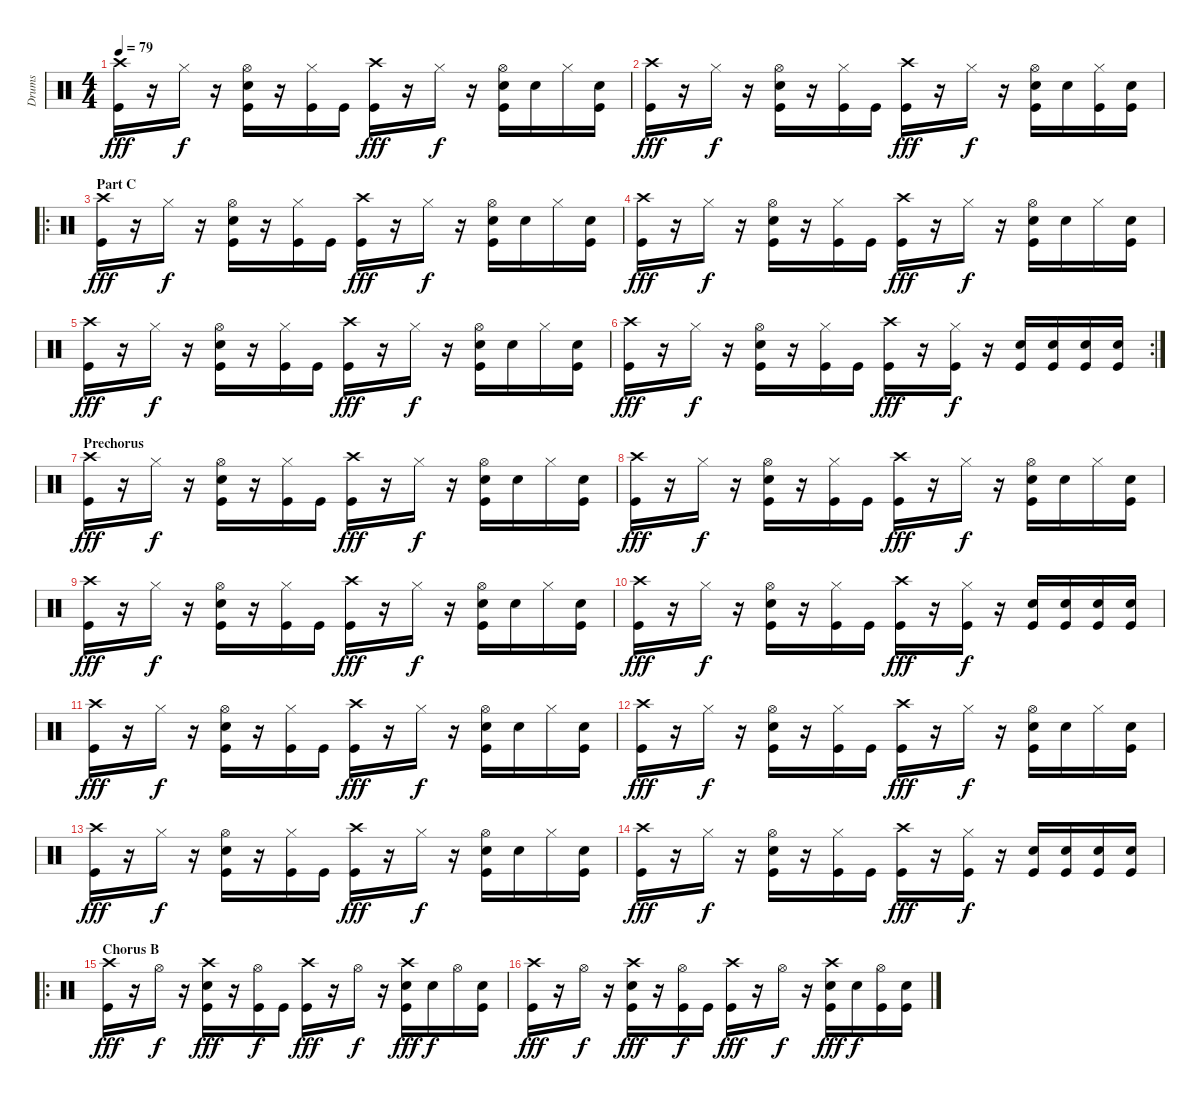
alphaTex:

\track ("Drums" "Drums") {instrument percussion}
\staff {score}
\articulation defaults
\ts (4 4)
\tempo 79
\clef neutral
\ks c
("Crash high (hit)" "Kick (hit)").16{dy fff volume 11} r.16 "Hi-Hat (closed)".16{dy f} r.16 ("Hi-Hat (open)" "Electric Snare (hit)" "Kick (hit)").16 r.16 ("Hi-Hat (closed)" "Kick (hit)").16 "Kick (hit)".16 ("Crash high (hit)" "Kick (hit)").16{dy fff} r.16 "Hi-Hat (closed)".16{dy f} r.16 ("Hi-Hat (open)" "Electric Snare (hit)" "Kick (hit)").16 "Electric Snare (hit)".16 "Hi-Hat (closed)".16 ("Electric Snare (hit)" "Kick (hit)").16 |
("Crash high (hit)" "Kick (hit)").16{dy fff} r.16 "Hi-Hat (closed)".16{dy f} r.16 ("Hi-Hat (open)" "Electric Snare (hit)" "Kick (hit)").16 r.16 ("Hi-Hat (closed)" "Kick (hit)").16 "Kick (hit)".16 ("Crash high (hit)" "Kick (hit)").16{dy fff} r.16 "Hi-Hat (closed)".16{dy f} r.16 ("Hi-Hat (open)" "Electric Snare (hit)" "Kick (hit)").16 "Electric Snare (hit)".16 ("Hi-Hat (closed)" "Kick (hit)").16 ("Electric Snare (hit)" "Kick (hit)").16 |
\ro
\section ("" "Part C")
("Crash high (hit)" "Kick (hit)").16{dy fff volume 11} r.16 "Hi-Hat (closed)".16{dy f} r.16 ("Hi-Hat (open)" "Electric Snare (hit)" "Kick (hit)").16 r.16 ("Hi-Hat (closed)" "Kick (hit)").16 "Kick (hit)".16 ("Crash high (hit)" "Kick (hit)").16{dy fff} r.16 "Hi-Hat (closed)".16{dy f} r.16 ("Hi-Hat (open)" "Electric Snare (hit)" "Kick (hit)").16 "Electric Snare (hit)".16 "Hi-Hat (closed)".16 ("Electric Snare (hit)" "Kick (hit)").16 |
("Crash high (hit)" "Kick (hit)").16{dy fff volume 11} r.16 "Hi-Hat (closed)".16{dy f} r.16 ("Hi-Hat (open)" "Electric Snare (hit)" "Kick (hit)").16 r.16 ("Hi-Hat (closed)" "Kick (hit)").16 "Kick (hit)".16 ("Crash high (hit)" "Kick (hit)").16{dy fff} r.16 "Hi-Hat (closed)".16{dy f} r.16 ("Hi-Hat (open)" "Electric Snare (hit)" "Kick (hit)").16 "Electric Snare (hit)".16 "Hi-Hat (closed)".16 ("Electric Snare (hit)" "Kick (hit)").16 |
("Crash high (hit)" "Kick (hit)").16{dy fff volume 11} r.16 "Hi-Hat (closed)".16{dy f} r.16 ("Hi-Hat (open)" "Electric Snare (hit)" "Kick (hit)").16 r.16 ("Hi-Hat (closed)" "Kick (hit)").16 "Kick (hit)".16 ("Crash high (hit)" "Kick (hit)").16{dy fff} r.16 "Hi-Hat (closed)".16{dy f} r.16 ("Hi-Hat (open)" "Electric Snare (hit)" "Kick (hit)").16 "Electric Snare (hit)".16 "Hi-Hat (closed)".16 ("Electric Snare (hit)" "Kick (hit)").16 |
\rc 2
("Crash high (hit)" "Kick (hit)").16{dy fff} r.16 "Hi-Hat (closed)".16{dy f} r.16 ("Hi-Hat (open)" "Electric Snare (hit)" "Kick (hit)").16 r.16 ("Hi-Hat (closed)" "Kick (hit)").16 "Kick (hit)".16 ("Crash high (hit)" "Kick (hit)").16{dy fff} r.16 ("Hi-Hat (closed)" "Kick (hit)").16{dy f} r.16 ("Electric Snare (hit)" "Kick (hit)").16 ("Electric Snare (hit)" "Kick (hit)").16 ("Electric Snare (hit)" "Kick (hit)").16 ("Electric Snare (hit)" "Kick (hit)").16 |
\section ("" "Prechorus")
("Crash high (hit)" "Kick (hit)").16{dy fff volume 11} r.16 "Hi-Hat (closed)".16{dy f} r.16 ("Hi-Hat (open)" "Electric Snare (hit)" "Kick (hit)").16 r.16 ("Hi-Hat (closed)" "Kick (hit)").16 "Kick (hit)".16 ("Crash high (hit)" "Kick (hit)").16{dy fff} r.16 "Hi-Hat (closed)".16{dy f} r.16 ("Hi-Hat (open)" "Electric Snare (hit)" "Kick (hit)").16 "Electric Snare (hit)".16 "Hi-Hat (closed)".16 ("Electric Snare (hit)" "Kick (hit)").16 |
("Crash high (hit)" "Kick (hit)").16{dy fff volume 11} r.16 "Hi-Hat (closed)".16{dy f} r.16 ("Hi-Hat (open)" "Electric Snare (hit)" "Kick (hit)").16 r.16 ("Hi-Hat (closed)" "Kick (hit)").16 "Kick (hit)".16 ("Crash high (hit)" "Kick (hit)").16{dy fff} r.16 "Hi-Hat (closed)".16{dy f} r.16 ("Hi-Hat (open)" "Electric Snare (hit)" "Kick (hit)").16 "Electric Snare (hit)".16 "Hi-Hat (closed)".16 ("Electric Snare (hit)" "Kick (hit)").16 |
("Crash high (hit)" "Kick (hit)").16{dy fff volume 11} r.16 "Hi-Hat (closed)".16{dy f} r.16 ("Hi-Hat (open)" "Electric Snare (hit)" "Kick (hit)").16 r.16 ("Hi-Hat (closed)" "Kick (hit)").16 "Kick (hit)".16 ("Crash high (hit)" "Kick (hit)").16{dy fff} r.16 "Hi-Hat (closed)".16{dy f} r.16 ("Hi-Hat (open)" "Electric Snare (hit)" "Kick (hit)").16 "Electric Snare (hit)".16 "Hi-Hat (closed)".16 ("Electric Snare (hit)" "Kick (hit)").16 |
("Crash high (hit)" "Kick (hit)").16{dy fff} r.16 "Hi-Hat (closed)".16{dy f} r.16 ("Hi-Hat (open)" "Electric Snare (hit)" "Kick (hit)").16 r.16 ("Hi-Hat (closed)" "Kick (hit)").16 "Kick (hit)".16 ("Crash high (hit)" "Kick (hit)").16{dy fff} r.16 ("Hi-Hat (closed)" "Kick (hit)").16{dy f} r.16 ("Electric Snare (hit)" "Kick (hit)").16 ("Electric Snare (hit)" "Kick (hit)").16 ("Electric Snare (hit)" "Kick (hit)").16 ("Electric Snare (hit)" "Kick (hit)").16 |
("Crash high (hit)" "Kick (hit)").16{dy fff volume 11} r.16 "Hi-Hat (closed)".16{dy f} r.16 ("Hi-Hat (open)" "Electric Snare (hit)" "Kick (hit)").16 r.16 ("Hi-Hat (closed)" "Kick (hit)").16 "Kick (hit)".16 ("Crash high (hit)" "Kick (hit)").16{dy fff} r.16 "Hi-Hat (closed)".16{dy f} r.16 ("Hi-Hat (open)" "Electric Snare (hit)" "Kick (hit)").16 "Electric Snare (hit)".16 "Hi-Hat (closed)".16 ("Electric Snare (hit)" "Kick (hit)").16 |
("Crash high (hit)" "Kick (hit)").16{dy fff volume 11} r.16 "Hi-Hat (closed)".16{dy f} r.16 ("Hi-Hat (open)" "Electric Snare (hit)" "Kick (hit)").16 r.16 ("Hi-Hat (closed)" "Kick (hit)").16 "Kick (hit)".16 ("Crash high (hit)" "Kick (hit)").16{dy fff} r.16 "Hi-Hat (closed)".16{dy f} r.16 ("Hi-Hat (open)" "Electric Snare (hit)" "Kick (hit)").16 "Electric Snare (hit)".16 "Hi-Hat (closed)".16 ("Electric Snare (hit)" "Kick (hit)").16 |
("Crash high (hit)" "Kick (hit)").16{dy fff volume 11} r.16 "Hi-Hat (closed)".16{dy f} r.16 ("Hi-Hat (open)" "Electric Snare (hit)" "Kick (hit)").16 r.16 ("Hi-Hat (closed)" "Kick (hit)").16 "Kick (hit)".16 ("Crash high (hit)" "Kick (hit)").16{dy fff} r.16 "Hi-Hat (closed)".16{dy f} r.16 ("Hi-Hat (open)" "Electric Snare (hit)" "Kick (hit)").16 "Electric Snare (hit)".16 "Hi-Hat (closed)".16 ("Electric Snare (hit)" "Kick (hit)").16 |
("Crash high (hit)" "Kick (hit)").16{dy fff} r.16 "Hi-Hat (closed)".16{dy f} r.16 ("Hi-Hat (open)" "Electric Snare (hit)" "Kick (hit)").16 r.16 ("Hi-Hat (closed)" "Kick (hit)").16 "Kick (hit)".16 ("Crash high (hit)" "Kick (hit)").16{dy fff} r.16 ("Hi-Hat (closed)" "Kick (hit)").16{dy f} r.16 ("Electric Snare (hit)" "Kick (hit)").16 ("Electric Snare (hit)" "Kick (hit)").16 ("Electric Snare (hit)" "Kick (hit)").16 ("Electric Snare (hit)" "Kick (hit)").16 |
\ro
\section ("" "Chorus B")
("Crash high (hit)" "Kick (hit)").16{dy fff} r.16 "Hi-Hat (open)".16{dy f} r.16 ("Crash high (hit)" "Electric Snare (hit)" "Kick (hit)").16{dy fff} r.16 ("Hi-Hat (open)" "Kick (hit)").16{dy f} "Kick (hit)".16 ("Crash high (hit)" "Kick (hit)").16{dy fff} r.16 "Hi-Hat (open)".16{dy f} r.16 ("Crash high (hit)" "Electric Snare (hit)" "Kick (hit)").16{dy fff} "Electric Snare (hit)".16{dy f} "Hi-Hat (open)".16 ("Electric Snare (hit)" "Kick (hit)").16 |
("Crash high (hit)" "Kick (hit)").16{dy fff} r.16 "Hi-Hat (open)".16{dy f} r.16 ("Crash high (hit)" "Electric Snare (hit)" "Kick (hit)").16{dy fff} r.16 ("Hi-Hat (open)" "Kick (hit)").16{dy f} "Kick (hit)".16 ("Crash high (hit)" "Kick (hit)").16{dy fff} r.16 "Hi-Hat (open)".16{dy f} r.16 ("Crash high (hit)" "Electric Snare (hit)" "Kick (hit)").16{dy fff} "Electric Snare (hit)".16{dy f} ("Hi-Hat (open)" "Kick (hit)").16 ("Electric Snare (hit)" "Kick (hit)").16
